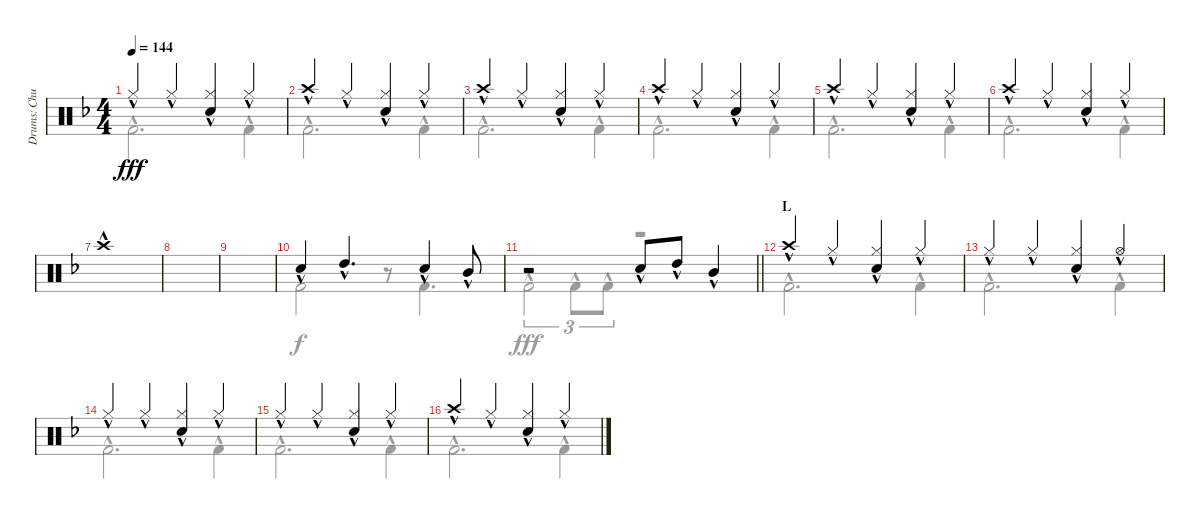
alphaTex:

\track ("Drums: Chuck" "Drums: Chu") {instrument percussion}
\staff {score}
\articulation defaults
\voice
\ts (4 4)
\tempo 144
\clef neutral
\ks f "Hi-Hat (closed)"{hac}.4{dy fff} "Hi-Hat (closed)"{hac}.4
("Hi-Hat (closed)"{hac} "Snare (hit) 2"{hac}).4 "Hi-Hat (closed)"{hac}.4 |
"Crash high (hit)"{hac}.4 "Hi-Hat (closed)"{hac}.4 ("Hi-Hat (closed)"{hac} "Snare (hit) 2"{hac}).4 "Hi-Hat (closed)"{hac}.4 |
"Crash high (hit)"{hac}.4 "Hi-Hat (closed)"{hac}.4 ("Hi-Hat (closed)"{hac} "Snare (hit) 2"{hac}).4 "Hi-Hat (closed)"{hac}.4 |
"Crash high (hit)"{hac}.4 "Hi-Hat (closed)"{hac}.4 ("Hi-Hat (closed)"{hac} "Snare (hit) 2"{hac}).4 "Hi-Hat (closed)"{hac}.4 |
"Crash high (hit)"{hac}.4 "Hi-Hat (closed)"{hac}.4 ("Hi-Hat (closed)"{hac} "Snare (hit) 2"{hac}).4 "Hi-Hat (closed)"{hac}.4 |
"Crash high (hit)"{hac}.4 "Hi-Hat (closed)"{hac}.4 ("Hi-Hat (closed)"{hac} "Snare (hit) 2"{hac}).4 "Hi-Hat (closed)"{hac}.4 |
"Crash high (hit)"{hac}.1 |
|
|
"Snare (hit) 2"{hac}.4 "High Tom (hit)"{hac}.4{d} "Snare (hit) 2"{hac}.4 "Mid Tom (hit)"{hac}.8 |
\barLineRight lightlight
r.2 "Snare (hit) 2"{hac}.8 "High Tom (hit)"{hac}.8 "Mid Tom (hit)"{hac}.4 |
\section ("" "L")
"Crash high (hit)"{hac}.4 "Hi-Hat (closed)"{hac}.4 ("Hi-Hat (closed)"{hac} "Snare (hit) 2"{hac}).4 "Hi-Hat (closed)"{hac}.4 |
"Hi-Hat (closed)"{hac}.4 "Hi-Hat (closed)"{hac}.4 ("Hi-Hat (closed)"{hac} "Snare (hit) 2"{hac}).4 "Hi-Hat (open)"{hac}.4 |
"Hi-Hat (closed)"{hac}.4 "Hi-Hat (closed)"{hac}.4 ("Hi-Hat (closed)"{hac} "Snare (hit) 2"{hac}).4 "Hi-Hat (closed)"{hac}.4 |
"Hi-Hat (closed)"{hac}.4 "Hi-Hat (closed)"{hac}.4 ("Hi-Hat (closed)"{hac} "Snare (hit) 2"{hac}).4 "Hi-Hat (closed)"{hac}.4 |
"Crash high (hit)"{hac}.4 "Hi-Hat (closed)"{hac}.4 ("Hi-Hat (closed)"{hac} "Snare (hit) 2"{hac}).4 "Hi-Hat (closed)"{hac}.4
\voice
\clef neutral
\ottava regular
\simile none
\ks f "Kick (hit) 2"{hac}.2{d dy fff} "Kick (hit) 2"{hac}.4
|
"Kick (hit) 2"{hac}.2{d} "Kick (hit) 2"{hac}.4 |
"Kick (hit) 2"{hac}.2{d} "Kick (hit) 2"{hac}.4 |
"Kick (hit) 2"{hac}.2{d} "Kick (hit) 2"{hac}.4 |
"Kick (hit) 2"{hac}.2{d} "Kick (hit) 2"{hac}.4 |
"Kick (hit) 2"{hac}.2{d} "Kick (hit) 2"{hac}.4 |
|
|
|
"Kick (hit) 2".2{dy f} r.8 "Kick (hit) 2".4{d} |
\barLineRight lightlight "Kick (hit) 2"{hac}.2{tu (3 2) dy fff} "Kick (hit) 2"{hac}.8{tu (3 2)} "Kick (hit) 2"{hac}.8{tu (3 2)}
r.2 |
"Kick (hit) 2"{hac}.2{d} "Kick (hit) 2"{hac}.4 |
"Kick (hit) 2"{hac}.2{d} "Kick (hit) 2"{hac}.4 |
"Kick (hit) 2"{hac}.2{d} "Kick (hit) 2"{hac}.4 |
"Kick (hit) 2"{hac}.2{d} "Kick (hit) 2"{hac}.4 |
"Kick (hit) 2"{hac}.2{d} "Kick (hit) 2"{hac}.4
